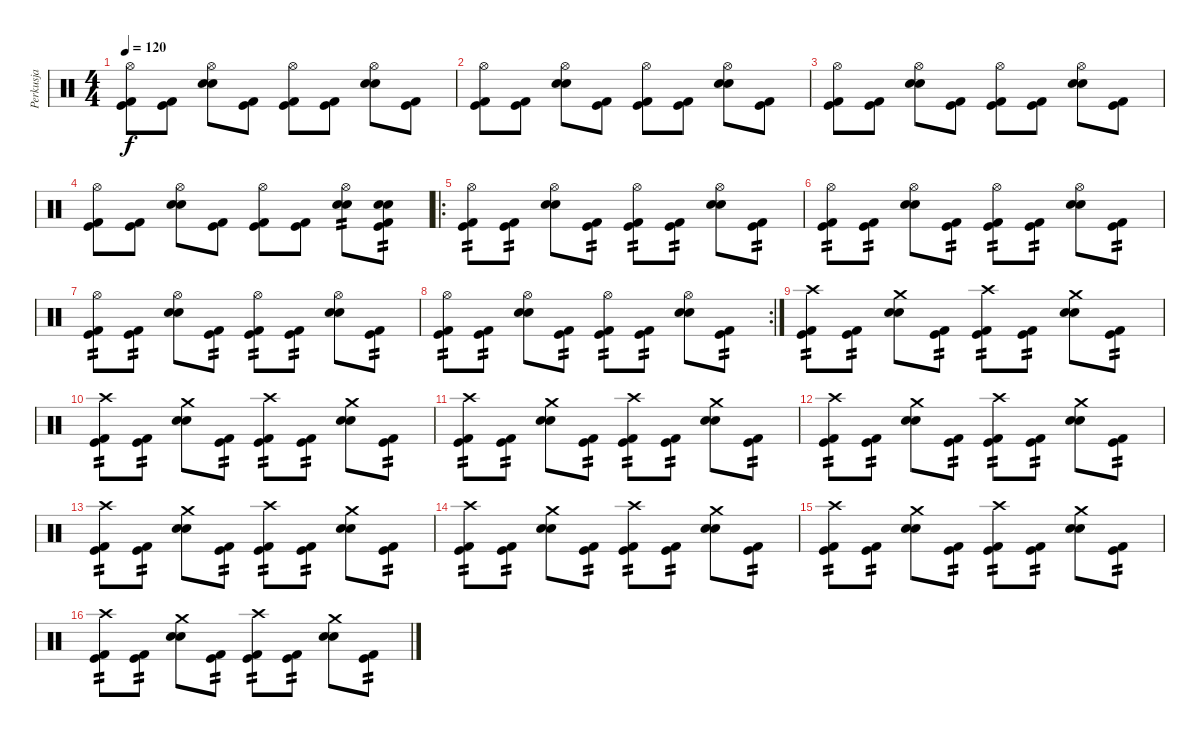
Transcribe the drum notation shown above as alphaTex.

\track ("Perkusja" "Perkusja") {instrument percussion}
\staff {score}
\articulation defaults
\ts (4 4)
\tempo 120
\clef neutral
\ks c
("Kick (hit) 2" "Kick (hit)" "Hi-Hat (open)").8{dy f} ("Kick (hit) 2" "Kick (hit)").8 ("Snare (hit) 2" "Electric Snare (hit)" "Hi-Hat (open)").8 ("Kick (hit) 2" "Kick (hit)").8 ("Kick (hit) 2" "Kick (hit)" "Hi-Hat (open)").8 ("Kick (hit) 2" "Kick (hit)").8 ("Snare (hit) 2" "Electric Snare (hit)" "Hi-Hat (open)").8 ("Kick (hit) 2" "Kick (hit)").8 |
("Kick (hit) 2" "Kick (hit)" "Hi-Hat (open)").8 ("Kick (hit) 2" "Kick (hit)").8 ("Snare (hit) 2" "Electric Snare (hit)" "Hi-Hat (open)").8 ("Kick (hit) 2" "Kick (hit)").8 ("Kick (hit) 2" "Kick (hit)" "Hi-Hat (open)").8 ("Kick (hit) 2" "Kick (hit)").8 ("Snare (hit) 2" "Electric Snare (hit)" "Hi-Hat (open)").8 ("Kick (hit) 2" "Kick (hit)").8 |
("Kick (hit) 2" "Kick (hit)" "Hi-Hat (open)").8 ("Kick (hit) 2" "Kick (hit)").8 ("Snare (hit) 2" "Electric Snare (hit)" "Hi-Hat (open)").8 ("Kick (hit) 2" "Kick (hit)").8 ("Kick (hit) 2" "Kick (hit)" "Hi-Hat (open)").8 ("Kick (hit) 2" "Kick (hit)").8 ("Snare (hit) 2" "Electric Snare (hit)" "Hi-Hat (open)").8 ("Kick (hit) 2" "Kick (hit)").8 |
("Kick (hit) 2" "Kick (hit)" "Hi-Hat (open)").8 ("Kick (hit) 2" "Kick (hit)").8 ("Snare (hit) 2" "Electric Snare (hit)" "Hi-Hat (open)").8 ("Kick (hit) 2" "Kick (hit)").8 ("Kick (hit) 2" "Kick (hit)" "Hi-Hat (open)").8 ("Kick (hit) 2" "Kick (hit)").8 ("Snare (hit) 2" "Electric Snare (hit)" "Hi-Hat (open)").8{tp 2} ("Kick (hit) 2" "Kick (hit)" "Snare (hit) 2" "Electric Snare (hit)").8{tp 2} |
\ro
("Kick (hit) 2" "Kick (hit)" "Hi-Hat (open)").8{tp 2} ("Kick (hit) 2" "Kick (hit)").8{tp 2} ("Snare (hit) 2" "Electric Snare (hit)" "Hi-Hat (open)").8 ("Kick (hit) 2" "Kick (hit)").8{tp 2} ("Kick (hit) 2" "Kick (hit)" "Hi-Hat (open)").8{tp 2} ("Kick (hit) 2" "Kick (hit)").8{tp 2} ("Snare (hit) 2" "Electric Snare (hit)" "Hi-Hat (open)").8 ("Kick (hit) 2" "Kick (hit)").8{tp 2} |
("Kick (hit) 2" "Kick (hit)" "Hi-Hat (open)").8{tp 2} ("Kick (hit) 2" "Kick (hit)").8{tp 2} ("Snare (hit) 2" "Electric Snare (hit)" "Hi-Hat (open)").8 ("Kick (hit) 2" "Kick (hit)").8{tp 2} ("Kick (hit) 2" "Kick (hit)" "Hi-Hat (open)").8{tp 2} ("Kick (hit) 2" "Kick (hit)").8{tp 2} ("Snare (hit) 2" "Electric Snare (hit)" "Hi-Hat (open)").8 ("Kick (hit) 2" "Kick (hit)").8{tp 2} |
("Kick (hit) 2" "Kick (hit)" "Hi-Hat (open)").8{tp 2} ("Kick (hit) 2" "Kick (hit)").8{tp 2} ("Snare (hit) 2" "Electric Snare (hit)" "Hi-Hat (open)").8 ("Kick (hit) 2" "Kick (hit)").8{tp 2} ("Kick (hit) 2" "Kick (hit)" "Hi-Hat (open)").8{tp 2} ("Kick (hit) 2" "Kick (hit)").8{tp 2} ("Snare (hit) 2" "Electric Snare (hit)" "Hi-Hat (open)").8 ("Kick (hit) 2" "Kick (hit)").8{tp 2} |
\rc 2
("Kick (hit) 2" "Kick (hit)" "Hi-Hat (open)").8{tp 2} ("Kick (hit) 2" "Kick (hit)").8{tp 2} ("Snare (hit) 2" "Electric Snare (hit)" "Hi-Hat (open)").8 ("Kick (hit) 2" "Kick (hit)").8{tp 2} ("Kick (hit) 2" "Kick (hit)" "Hi-Hat (open)").8{tp 2} ("Kick (hit) 2" "Kick (hit)").8{tp 2} ("Snare (hit) 2" "Electric Snare (hit)" "Hi-Hat (open)").8 ("Kick (hit) 2" "Kick (hit)").8{tp 2} |
("Kick (hit) 2" "Kick (hit)" "Crash high (hit)").8{tp 2} ("Kick (hit) 2" "Kick (hit)").8{tp 2} ("Snare (hit) 2" "Electric Snare (hit)" "Crash medium (hit)").8 ("Kick (hit) 2" "Kick (hit)").8{tp 2} ("Kick (hit) 2" "Kick (hit)" "Crash high (hit)").8{tp 2} ("Kick (hit) 2" "Kick (hit)").8{tp 2} ("Snare (hit) 2" "Electric Snare (hit)" "Crash medium (hit)").8 ("Kick (hit) 2" "Kick (hit)").8{tp 2} |
("Kick (hit) 2" "Kick (hit)" "Crash high (hit)").8{tp 2} ("Kick (hit) 2" "Kick (hit)").8{tp 2} ("Snare (hit) 2" "Electric Snare (hit)" "Crash medium (hit)").8 ("Kick (hit) 2" "Kick (hit)").8{tp 2} ("Kick (hit) 2" "Kick (hit)" "Crash high (hit)").8{tp 2} ("Kick (hit) 2" "Kick (hit)").8{tp 2} ("Snare (hit) 2" "Electric Snare (hit)" "Crash medium (hit)").8 ("Kick (hit) 2" "Kick (hit)").8{tp 2} |
("Kick (hit) 2" "Kick (hit)" "Crash high (hit)").8{tp 2} ("Kick (hit) 2" "Kick (hit)").8{tp 2} ("Snare (hit) 2" "Electric Snare (hit)" "Crash medium (hit)").8 ("Kick (hit) 2" "Kick (hit)").8{tp 2} ("Kick (hit) 2" "Kick (hit)" "Crash high (hit)").8{tp 2} ("Kick (hit) 2" "Kick (hit)").8{tp 2} ("Snare (hit) 2" "Electric Snare (hit)" "Crash medium (hit)").8 ("Kick (hit) 2" "Kick (hit)").8{tp 2} |
("Kick (hit) 2" "Kick (hit)" "Crash high (hit)").8{tp 2} ("Kick (hit) 2" "Kick (hit)").8{tp 2} ("Snare (hit) 2" "Electric Snare (hit)" "Crash medium (hit)").8 ("Kick (hit) 2" "Kick (hit)").8{tp 2} ("Kick (hit) 2" "Kick (hit)" "Crash high (hit)").8{tp 2} ("Kick (hit) 2" "Kick (hit)").8{tp 2} ("Snare (hit) 2" "Electric Snare (hit)" "Crash medium (hit)").8 ("Kick (hit) 2" "Kick (hit)").8{tp 2} |
("Kick (hit) 2" "Kick (hit)" "Crash high (hit)").8{tp 2} ("Kick (hit) 2" "Kick (hit)").8{tp 2} ("Snare (hit) 2" "Electric Snare (hit)" "Crash medium (hit)").8 ("Kick (hit) 2" "Kick (hit)").8{tp 2} ("Kick (hit) 2" "Kick (hit)" "Crash high (hit)").8{tp 2} ("Kick (hit) 2" "Kick (hit)").8{tp 2} ("Snare (hit) 2" "Electric Snare (hit)" "Crash medium (hit)").8 ("Kick (hit) 2" "Kick (hit)").8{tp 2} |
("Kick (hit) 2" "Kick (hit)" "Crash high (hit)").8{tp 2} ("Kick (hit) 2" "Kick (hit)").8{tp 2} ("Snare (hit) 2" "Electric Snare (hit)" "Crash medium (hit)").8 ("Kick (hit) 2" "Kick (hit)").8{tp 2} ("Kick (hit) 2" "Kick (hit)" "Crash high (hit)").8{tp 2} ("Kick (hit) 2" "Kick (hit)").8{tp 2} ("Snare (hit) 2" "Electric Snare (hit)" "Crash medium (hit)").8 ("Kick (hit) 2" "Kick (hit)").8{tp 2} |
("Kick (hit) 2" "Kick (hit)" "Crash high (hit)").8{tp 2} ("Kick (hit) 2" "Kick (hit)").8{tp 2} ("Snare (hit) 2" "Electric Snare (hit)" "Crash medium (hit)").8 ("Kick (hit) 2" "Kick (hit)").8{tp 2} ("Kick (hit) 2" "Kick (hit)" "Crash high (hit)").8{tp 2} ("Kick (hit) 2" "Kick (hit)").8{tp 2} ("Snare (hit) 2" "Electric Snare (hit)" "Crash medium (hit)").8 ("Kick (hit) 2" "Kick (hit)").8{tp 2} |
("Kick (hit) 2" "Kick (hit)" "Crash high (hit)").8{tp 2} ("Kick (hit) 2" "Kick (hit)").8{tp 2} ("Snare (hit) 2" "Electric Snare (hit)" "Crash medium (hit)").8 ("Kick (hit) 2" "Kick (hit)").8{tp 2} ("Kick (hit) 2" "Kick (hit)" "Crash high (hit)").8{tp 2} ("Kick (hit) 2" "Kick (hit)").8{tp 2} ("Snare (hit) 2" "Electric Snare (hit)" "Crash medium (hit)").8 ("Kick (hit) 2" "Kick (hit)").8{tp 2}
